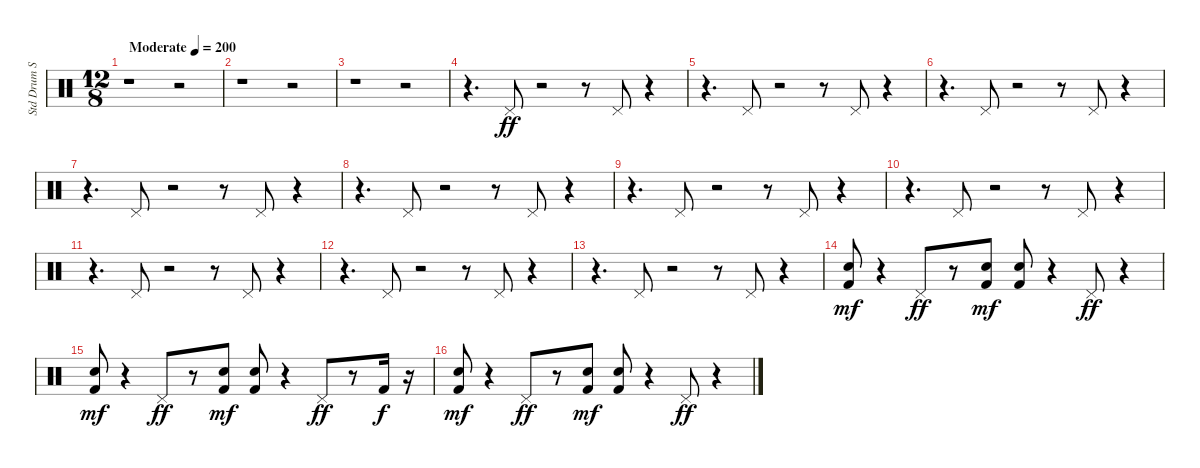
\track ("Std Drum Set" "Std Drum S") {instrument percussion}
\staff {score}
\articulation defaults
\ts (12 8)
\tempo (200 "Moderate")
\clef neutral
\ks c
r.1{dy ff} r.2 |
r.1 r.2 |
r.1 r.2 |
r.4{d} "Pedal Hi-Hat (hit)".8 r.2 r.8 "Pedal Hi-Hat (hit)".8 r.4 |
r.4{d} "Pedal Hi-Hat (hit)".8 r.2 r.8 "Pedal Hi-Hat (hit)".8 r.4 |
r.4{d} "Pedal Hi-Hat (hit)".8 r.2 r.8 "Pedal Hi-Hat (hit)".8 r.4 |
r.4{d} "Pedal Hi-Hat (hit)".8 r.2 r.8 "Pedal Hi-Hat (hit)".8 r.4 |
r.4{d} "Pedal Hi-Hat (hit)".8 r.2 r.8 "Pedal Hi-Hat (hit)".8 r.4 |
r.4{d} "Pedal Hi-Hat (hit)".8 r.2 r.8 "Pedal Hi-Hat (hit)".8 r.4 |
r.4{d} "Pedal Hi-Hat (hit)".8 r.2 r.8 "Pedal Hi-Hat (hit)".8 r.4 |
r.4{d} "Pedal Hi-Hat (hit)".8 r.2 r.8 "Pedal Hi-Hat (hit)".8 r.4 |
r.4{d} "Pedal Hi-Hat (hit)".8 r.2 r.8 "Pedal Hi-Hat (hit)".8 r.4 |
r.4{d} "Pedal Hi-Hat (hit)".8 r.2 r.8 "Pedal Hi-Hat (hit)".8 r.4 |
("Kick (hit) 2" "Hand Clap (hit)").8{dy mf} r.4 "Pedal Hi-Hat (hit)".8{dy ff} r.8 ("Kick (hit) 2" "Hand Clap (hit)").8{dy mf} ("Kick (hit) 2" "Hand Clap (hit)").8 r.4 "Pedal Hi-Hat (hit)".8{dy ff} r.4 |
("Kick (hit) 2" "Hand Clap (hit)").8{dy mf} r.4 "Pedal Hi-Hat (hit)".8{dy ff} r.8 ("Kick (hit) 2" "Hand Clap (hit)").8{dy mf} ("Kick (hit) 2" "Hand Clap (hit)").8 r.4 "Pedal Hi-Hat (hit)".8{dy ff} r.8 "Kick (hit) 2".16{dy f} r.16 |
("Kick (hit) 2" "Hand Clap (hit)").8{dy mf} r.4 "Pedal Hi-Hat (hit)".8{dy ff} r.8 ("Kick (hit) 2" "Hand Clap (hit)").8{dy mf} ("Kick (hit) 2" "Hand Clap (hit)").8 r.4 "Pedal Hi-Hat (hit)".8{dy ff} r.4
